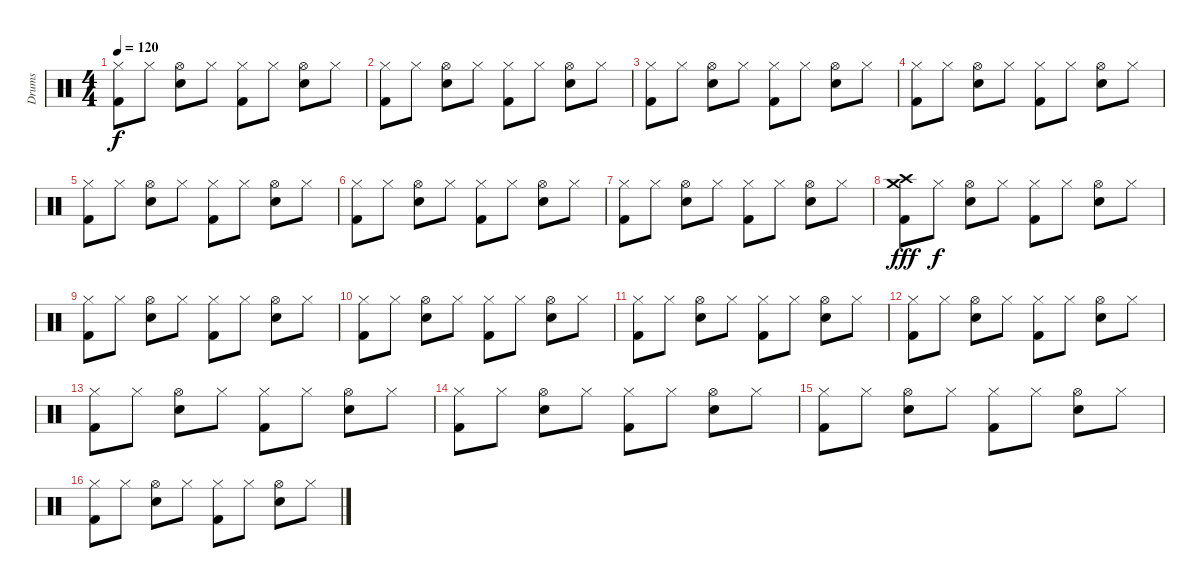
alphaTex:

\track ("Drums" "Drums") {instrument percussion}
\staff {score}
\articulation defaults
\ts (4 4)
\tempo 120
\clef neutral
\ks c
("Hi-Hat (closed)" "Kick (hit) 2").8{dy f} "Hi-Hat (closed)".8 ("Hi-Hat (open)" "Snare (hit) 2").8 "Hi-Hat (closed)".8 ("Hi-Hat (closed)" "Kick (hit) 2").8 "Hi-Hat (closed)".8 ("Hi-Hat (open)" "Snare (hit) 2").8 "Hi-Hat (closed)".8 |
("Hi-Hat (closed)" "Kick (hit) 2").8 "Hi-Hat (closed)".8 ("Hi-Hat (open)" "Snare (hit) 2").8 "Hi-Hat (closed)".8 ("Hi-Hat (closed)" "Kick (hit) 2").8 "Hi-Hat (closed)".8 ("Hi-Hat (open)" "Snare (hit) 2").8 "Hi-Hat (closed)".8 |
("Hi-Hat (closed)" "Kick (hit) 2").8 "Hi-Hat (closed)".8 ("Hi-Hat (open)" "Snare (hit) 2").8 "Hi-Hat (closed)".8 ("Hi-Hat (closed)" "Kick (hit) 2").8 "Hi-Hat (closed)".8 ("Hi-Hat (open)" "Snare (hit) 2").8 "Hi-Hat (closed)".8 |
("Hi-Hat (closed)" "Kick (hit) 2").8 "Hi-Hat (closed)".8 ("Hi-Hat (open)" "Snare (hit) 2").8 "Hi-Hat (closed)".8 ("Hi-Hat (closed)" "Kick (hit) 2").8 "Hi-Hat (closed)".8 ("Hi-Hat (open)" "Snare (hit) 2").8 "Hi-Hat (closed)".8 |
("Hi-Hat (closed)" "Kick (hit) 2").8 "Hi-Hat (closed)".8 ("Hi-Hat (open)" "Snare (hit) 2").8 "Hi-Hat (closed)".8 ("Hi-Hat (closed)" "Kick (hit) 2").8 "Hi-Hat (closed)".8 ("Hi-Hat (open)" "Snare (hit) 2").8 "Hi-Hat (closed)".8 |
("Hi-Hat (closed)" "Kick (hit) 2").8 "Hi-Hat (closed)".8 ("Hi-Hat (open)" "Snare (hit) 2").8 "Hi-Hat (closed)".8 ("Hi-Hat (closed)" "Kick (hit) 2").8 "Hi-Hat (closed)".8 ("Hi-Hat (open)" "Snare (hit) 2").8 "Hi-Hat (closed)".8 |
("Hi-Hat (closed)" "Kick (hit) 2").8 "Hi-Hat (closed)".8 ("Hi-Hat (open)" "Snare (hit) 2").8 "Hi-Hat (closed)".8 ("Hi-Hat (closed)" "Kick (hit) 2").8 "Hi-Hat (closed)".8 ("Hi-Hat (open)" "Snare (hit) 2").8 "Hi-Hat (closed)".8 |
("Crash high (hit)" "Crash medium (hit)" "Kick (hit) 2").8{dy fff} "Hi-Hat (closed)".8{dy f} ("Hi-Hat (open)" "Snare (hit) 2").8 "Hi-Hat (closed)".8 ("Hi-Hat (closed)" "Kick (hit) 2").8 "Hi-Hat (closed)".8 ("Hi-Hat (open)" "Snare (hit) 2").8 "Hi-Hat (closed)".8 |
("Hi-Hat (closed)" "Kick (hit) 2").8 "Hi-Hat (closed)".8 ("Hi-Hat (open)" "Snare (hit) 2").8 "Hi-Hat (closed)".8 ("Hi-Hat (closed)" "Kick (hit) 2").8 "Hi-Hat (closed)".8 ("Hi-Hat (open)" "Snare (hit) 2").8 "Hi-Hat (closed)".8 |
("Hi-Hat (closed)" "Kick (hit) 2").8 "Hi-Hat (closed)".8 ("Hi-Hat (open)" "Snare (hit) 2").8 "Hi-Hat (closed)".8 ("Hi-Hat (closed)" "Kick (hit) 2").8 "Hi-Hat (closed)".8 ("Hi-Hat (open)" "Snare (hit) 2").8 "Hi-Hat (closed)".8 |
("Hi-Hat (closed)" "Kick (hit) 2").8 "Hi-Hat (closed)".8 ("Hi-Hat (open)" "Snare (hit) 2").8 "Hi-Hat (closed)".8 ("Hi-Hat (closed)" "Kick (hit) 2").8 "Hi-Hat (closed)".8 ("Hi-Hat (open)" "Snare (hit) 2").8 "Hi-Hat (closed)".8 |
("Hi-Hat (closed)" "Kick (hit) 2").8 "Hi-Hat (closed)".8 ("Hi-Hat (open)" "Snare (hit) 2").8 "Hi-Hat (closed)".8 ("Hi-Hat (closed)" "Kick (hit) 2").8 "Hi-Hat (closed)".8 ("Hi-Hat (open)" "Snare (hit) 2").8 "Hi-Hat (closed)".8 |
("Hi-Hat (closed)" "Kick (hit) 2").8 "Hi-Hat (closed)".8 ("Hi-Hat (open)" "Snare (hit) 2").8 "Hi-Hat (closed)".8 ("Hi-Hat (closed)" "Kick (hit) 2").8 "Hi-Hat (closed)".8 ("Hi-Hat (open)" "Snare (hit) 2").8 "Hi-Hat (closed)".8 |
("Hi-Hat (closed)" "Kick (hit) 2").8 "Hi-Hat (closed)".8 ("Hi-Hat (open)" "Snare (hit) 2").8 "Hi-Hat (closed)".8 ("Hi-Hat (closed)" "Kick (hit) 2").8 "Hi-Hat (closed)".8 ("Hi-Hat (open)" "Snare (hit) 2").8 "Hi-Hat (closed)".8 |
("Hi-Hat (closed)" "Kick (hit) 2").8 "Hi-Hat (closed)".8 ("Hi-Hat (open)" "Snare (hit) 2").8 "Hi-Hat (closed)".8 ("Hi-Hat (closed)" "Kick (hit) 2").8 "Hi-Hat (closed)".8 ("Hi-Hat (open)" "Snare (hit) 2").8 "Hi-Hat (closed)".8 |
("Hi-Hat (closed)" "Kick (hit) 2").8 "Hi-Hat (closed)".8 ("Hi-Hat (open)" "Snare (hit) 2").8 "Hi-Hat (closed)".8 ("Hi-Hat (closed)" "Kick (hit) 2").8 "Hi-Hat (closed)".8 ("Hi-Hat (open)" "Snare (hit) 2").8 "Hi-Hat (closed)".8
